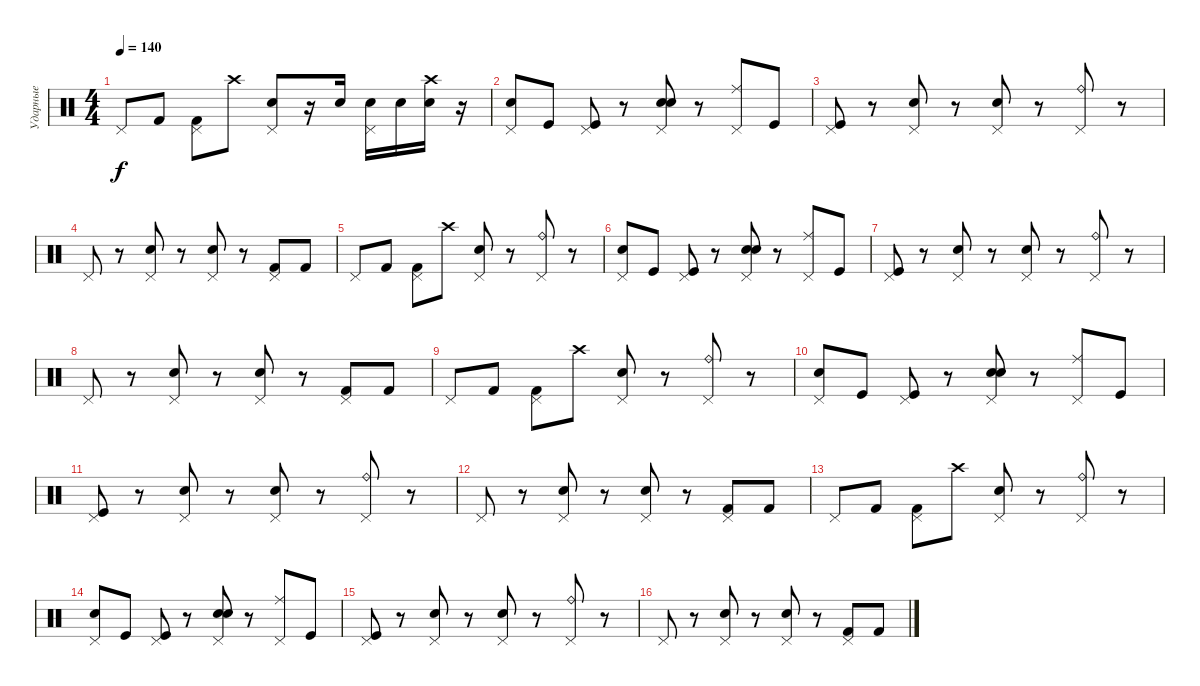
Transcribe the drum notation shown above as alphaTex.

\track ("Ударные" "Ударные") {instrument percussion bank 7}
\staff {score}
\articulation defaults
\ts (4 4)
\tempo 140
\clef neutral
\ks c "Pedal Hi-Hat (hit)".8{dy f} "Kick (hit) 2".8
("Pedal Hi-Hat (hit)" "Kick (hit) 2").8 "Crash high (hit)".8 ("Pedal Hi-Hat (hit)" "Metronome (bell)").8 r.16 "Electric Snare (hit)".16 ("Pedal Hi-Hat (hit)" "Electric Snare (hit)").16 "Electric Snare (hit)".16 ("Electric Snare (hit)" "Crash high (hit)").16 r.16 |
("Pedal Hi-Hat (hit)" "Snare (hit) 2").8 "Kick (hit)".8 ("Pedal Hi-Hat (hit)" "Kick (hit)").8 r.8 ("Pedal Hi-Hat (hit)" "Electric Snare (hit)" "Metronome (bell)").8 r.8 ("Pedal Hi-Hat (hit)" "Ride (middle)").8 "Kick (hit)".8 |
("Pedal Hi-Hat (hit)" "Kick (hit)").8 r.8 ("Pedal Hi-Hat (hit)" "Electric Snare (hit)").8 r.8 ("Pedal Hi-Hat (hit)" "Metronome (bell)").8 r.8 ("Pedal Hi-Hat (hit)" "Ride (bell)").8 r.8 |
"Pedal Hi-Hat (hit)".8 r.8 ("Pedal Hi-Hat (hit)" "Electric Snare (hit)").8 r.8 ("Pedal Hi-Hat (hit)" "Metronome (bell)").8 r.8 ("Pedal Hi-Hat (hit)" "Kick (hit) 2").8 "Kick (hit) 2".8 |
"Pedal Hi-Hat (hit)".8 "Kick (hit) 2".8 ("Pedal Hi-Hat (hit)" "Kick (hit) 2").8 "Crash high (hit)".8 ("Pedal Hi-Hat (hit)" "Metronome (bell)").8 r.8 ("Pedal Hi-Hat (hit)" "Ride (bell)").8 r.8 |
("Pedal Hi-Hat (hit)" "Snare (hit) 2").8 "Kick (hit)".8 ("Pedal Hi-Hat (hit)" "Kick (hit)").8 r.8 ("Pedal Hi-Hat (hit)" "Electric Snare (hit)" "Metronome (bell)").8 r.8 ("Pedal Hi-Hat (hit)" "Ride (middle)").8 "Kick (hit)".8 |
("Pedal Hi-Hat (hit)" "Kick (hit)").8 r.8 ("Pedal Hi-Hat (hit)" "Electric Snare (hit)").8 r.8 ("Pedal Hi-Hat (hit)" "Metronome (bell)").8 r.8 ("Pedal Hi-Hat (hit)" "Ride (bell)").8 r.8 |
"Pedal Hi-Hat (hit)".8 r.8 ("Pedal Hi-Hat (hit)" "Electric Snare (hit)").8 r.8 ("Pedal Hi-Hat (hit)" "Metronome (bell)").8 r.8 ("Pedal Hi-Hat (hit)" "Kick (hit) 2").8 "Kick (hit) 2".8 |
"Pedal Hi-Hat (hit)".8 "Kick (hit) 2".8 ("Pedal Hi-Hat (hit)" "Kick (hit) 2").8 "Crash high (hit)".8 ("Pedal Hi-Hat (hit)" "Metronome (bell)").8 r.8 ("Pedal Hi-Hat (hit)" "Ride (bell)").8 r.8 |
("Pedal Hi-Hat (hit)" "Snare (hit) 2").8 "Kick (hit)".8 ("Pedal Hi-Hat (hit)" "Kick (hit)").8 r.8 ("Pedal Hi-Hat (hit)" "Electric Snare (hit)" "Metronome (bell)").8 r.8 ("Pedal Hi-Hat (hit)" "Ride (middle)").8 "Kick (hit)".8 |
("Pedal Hi-Hat (hit)" "Kick (hit)").8 r.8 ("Pedal Hi-Hat (hit)" "Electric Snare (hit)").8 r.8 ("Pedal Hi-Hat (hit)" "Metronome (bell)").8 r.8 ("Pedal Hi-Hat (hit)" "Ride (bell)").8 r.8 |
"Pedal Hi-Hat (hit)".8 r.8 ("Pedal Hi-Hat (hit)" "Electric Snare (hit)").8 r.8 ("Pedal Hi-Hat (hit)" "Metronome (bell)").8 r.8 ("Pedal Hi-Hat (hit)" "Kick (hit) 2").8 "Kick (hit) 2".8 |
"Pedal Hi-Hat (hit)".8 "Kick (hit) 2".8 ("Pedal Hi-Hat (hit)" "Kick (hit) 2").8 "Crash high (hit)".8 ("Pedal Hi-Hat (hit)" "Metronome (bell)").8 r.8 ("Pedal Hi-Hat (hit)" "Ride (bell)").8 r.8 |
("Pedal Hi-Hat (hit)" "Snare (hit) 2").8 "Kick (hit)".8 ("Pedal Hi-Hat (hit)" "Kick (hit)").8 r.8 ("Pedal Hi-Hat (hit)" "Electric Snare (hit)" "Metronome (bell)").8 r.8 ("Pedal Hi-Hat (hit)" "Ride (middle)").8 "Kick (hit)".8 |
("Pedal Hi-Hat (hit)" "Kick (hit)").8 r.8 ("Pedal Hi-Hat (hit)" "Electric Snare (hit)").8 r.8 ("Pedal Hi-Hat (hit)" "Metronome (bell)").8 r.8 ("Pedal Hi-Hat (hit)" "Ride (bell)").8 r.8 |
"Pedal Hi-Hat (hit)".8 r.8 ("Pedal Hi-Hat (hit)" "Electric Snare (hit)").8 r.8 ("Pedal Hi-Hat (hit)" "Metronome (bell)").8 r.8 ("Pedal Hi-Hat (hit)" "Kick (hit) 2").8 "Kick (hit) 2".8
